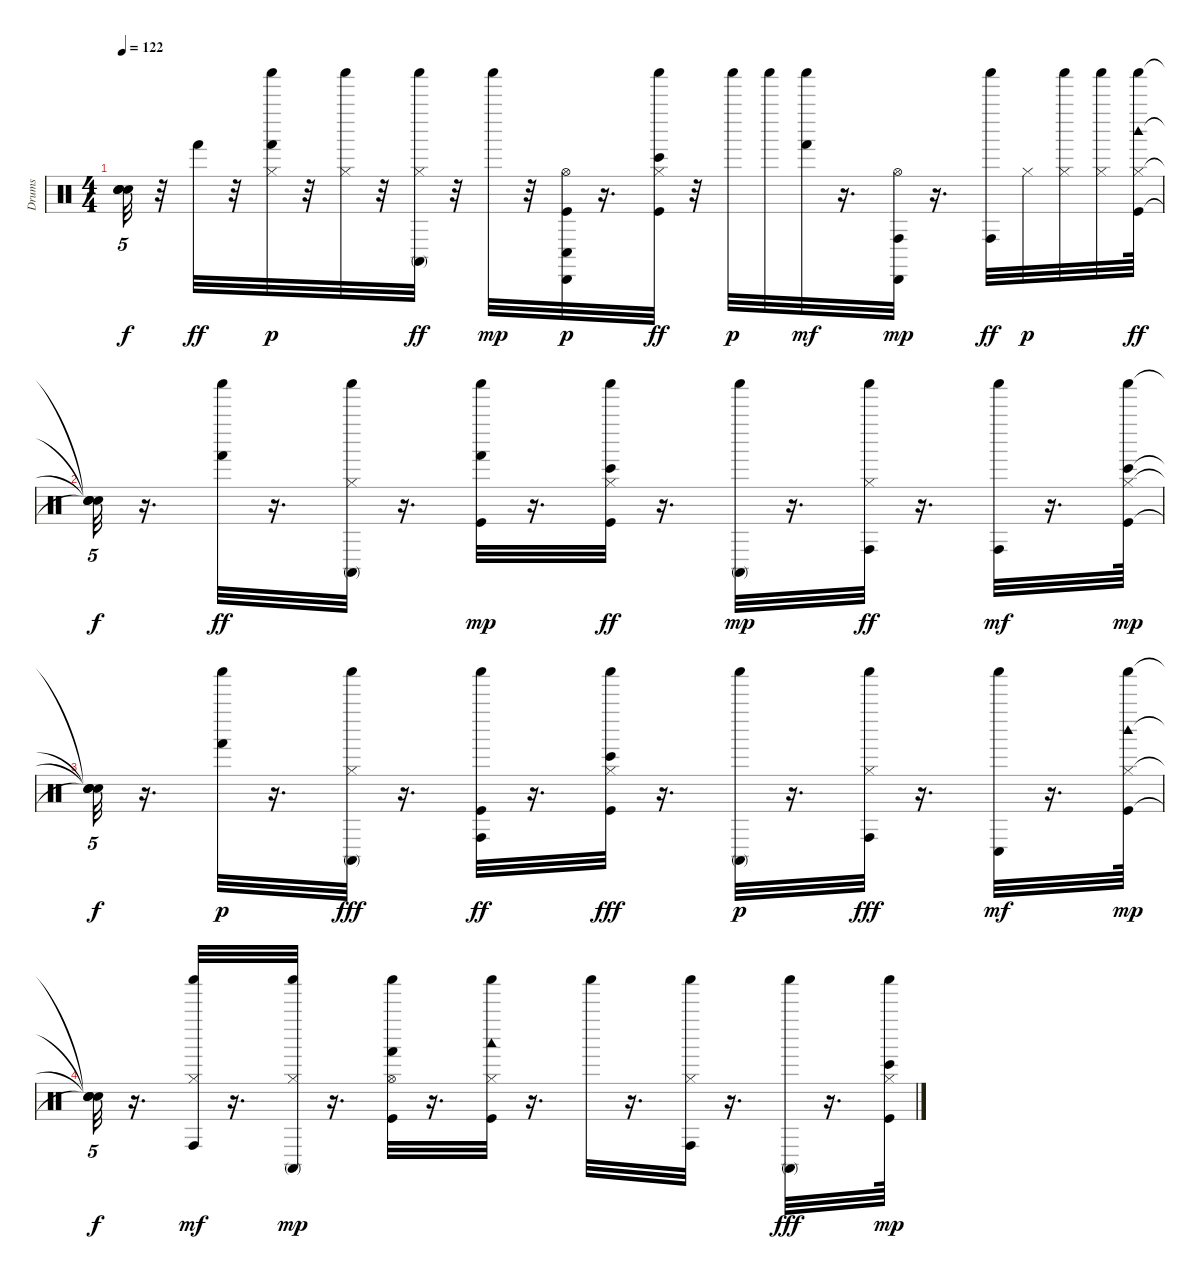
\track ("Drums" "Drums") {instrument percussion}
\staff {score}
\articulation defaults
\ts (4 4)
\tempo 122
\clef neutral
\ks c
("Snare (hit)"{t} "Snare (hit)"{t} "Snare (hit)"{t} "Snare (hit)"{t}).32{tu (5 4) dy f} r.32 "Hand (hit)".32{dy ff} r.32 ("Hi-Hat (closed)" "Hand (hit)" "Shaker (hit)").32{dy p} r.32 ("Hi-Hat (closed)" "Shaker (hit)").32 r.32 ("Shaker (hit)" "Hi-Hat (closed)" "Conga high (mute)").32{dy ff} r.32 "Shaker (hit)".32{dy mp} r.32 ("Kick (hit)" "Hi-Hat (open)" "Conga low (hit)" "Cabasa (hit)").32{dy p} r.16{d} ("Shaker (hit)" "Kick (hit)" "Hi-Hat (closed)" "Bongo High (hit)").32{dy ff} r.32 "Shaker (hit)".32{dy p} "Shaker (hit)".32 ("Shaker (hit)" "Hand (hit)").32{dy mf} r.16{d} ("Hi-Hat (open)" "Conga high (hit)" "Cabasa (hit)").32{dy mp} r.16{d} ("Shaker (hit)" "Conga high (hit)").32{dy ff} "Hi-Hat (closed)".32{dy p} ("Hi-Hat (closed)" "Shaker (hit)").32 ("Hi-Hat (closed)" "Shaker (hit)").32 ("Shaker (hit)" "Kick (hit)" "Hi-Hat (closed)" "Woodblock high (hit)").64{dy ff} |
("Snare (hit)"{t} "Snare (hit)"{t} "Snare (hit)"{t} "Snare (hit)"{t}).32{tu (5 4) dy f} r.16{d} ("Shaker (hit)" "Hand (hit)").32{dy ff} r.16{d} ("Shaker (hit)" "Hi-Hat (closed)" "Conga high (mute)").32 r.16{d} ("Shaker (hit)" "Kick (hit)" "Hand (hit)").32{dy mp} r.16{d} ("Shaker (hit)" "Kick (hit)" "Hi-Hat (closed)" "Bongo High (hit)").32{dy ff} r.16{d} ("Shaker (hit)" "Conga high (mute)").32{dy mp} r.16{d} ("Hi-Hat (closed)" "Shaker (hit)" "Conga high (hit)").32{dy ff} r.16{d} ("Shaker (hit)" "Conga high (hit)").32{dy mf} r.16{d} ("Kick (hit)" "Hi-Hat (closed)" "Bongo High (hit)" "Shaker (hit)").64{dy mp} |
("Snare (hit)"{t} "Snare (hit)"{t} "Snare (hit)"{t} "Snare (hit)"{t}).32{tu (5 4) dy f} r.16{d} ("Hand (hit)" "Shaker (hit)").32{dy p} r.16{d} ("Shaker (hit)" "Hi-Hat (closed)" "Conga high (mute)").32{dy fff} r.16{d} ("Shaker (hit)" "Kick (hit)" "Conga high (hit)").32{dy ff} r.16{d} ("Shaker (hit)" "Kick (hit)" "Hi-Hat (closed)" "Bongo High (hit)").32{dy fff} r.16{d} ("Shaker (hit)" "Conga high (mute)").32{dy p} r.16{d} ("Shaker (hit)" "Hi-Hat (closed)" "Conga high (hit)").32{dy fff} r.16{d} ("Shaker (hit)" "Conga low (hit)").32{dy mf} r.16{d} ("Woodblock high (hit)" "Kick (hit)" "Hi-Hat (closed)" "Shaker (hit)").64{dy mp} |
("Snare (hit)"{t} "Snare (hit)"{t} "Snare (hit)"{t} "Snare (hit)"{t}).32{tu (5 4) dy f} r.16{d} ("Shaker (hit)" "Hi-Hat (closed)" "Conga high (hit)").32{dy mf} r.16{d} ("Hi-Hat (closed)" "Conga high (mute)" "Shaker (hit)").32{dy mp} r.16{d} ("Kick (hit)" "Hi-Hat (open)" "Hand (hit)" "Shaker (hit)").32 r.16{d} ("Woodblock low (hit)" "Kick (hit)" "Hi-Hat (closed)" "Shaker (hit)").32 r.16{d} "Shaker (hit)".32 r.16{d} ("Hi-Hat (closed)" "Conga high (hit)" "Shaker (hit)").32 r.16{d} ("Shaker (hit)" "Conga high (mute)").32{dy fff} r.16{d} ("Kick (hit)" "Hi-Hat (closed)" "Bongo High (hit)" "Shaker (hit)").64{dy mp}
